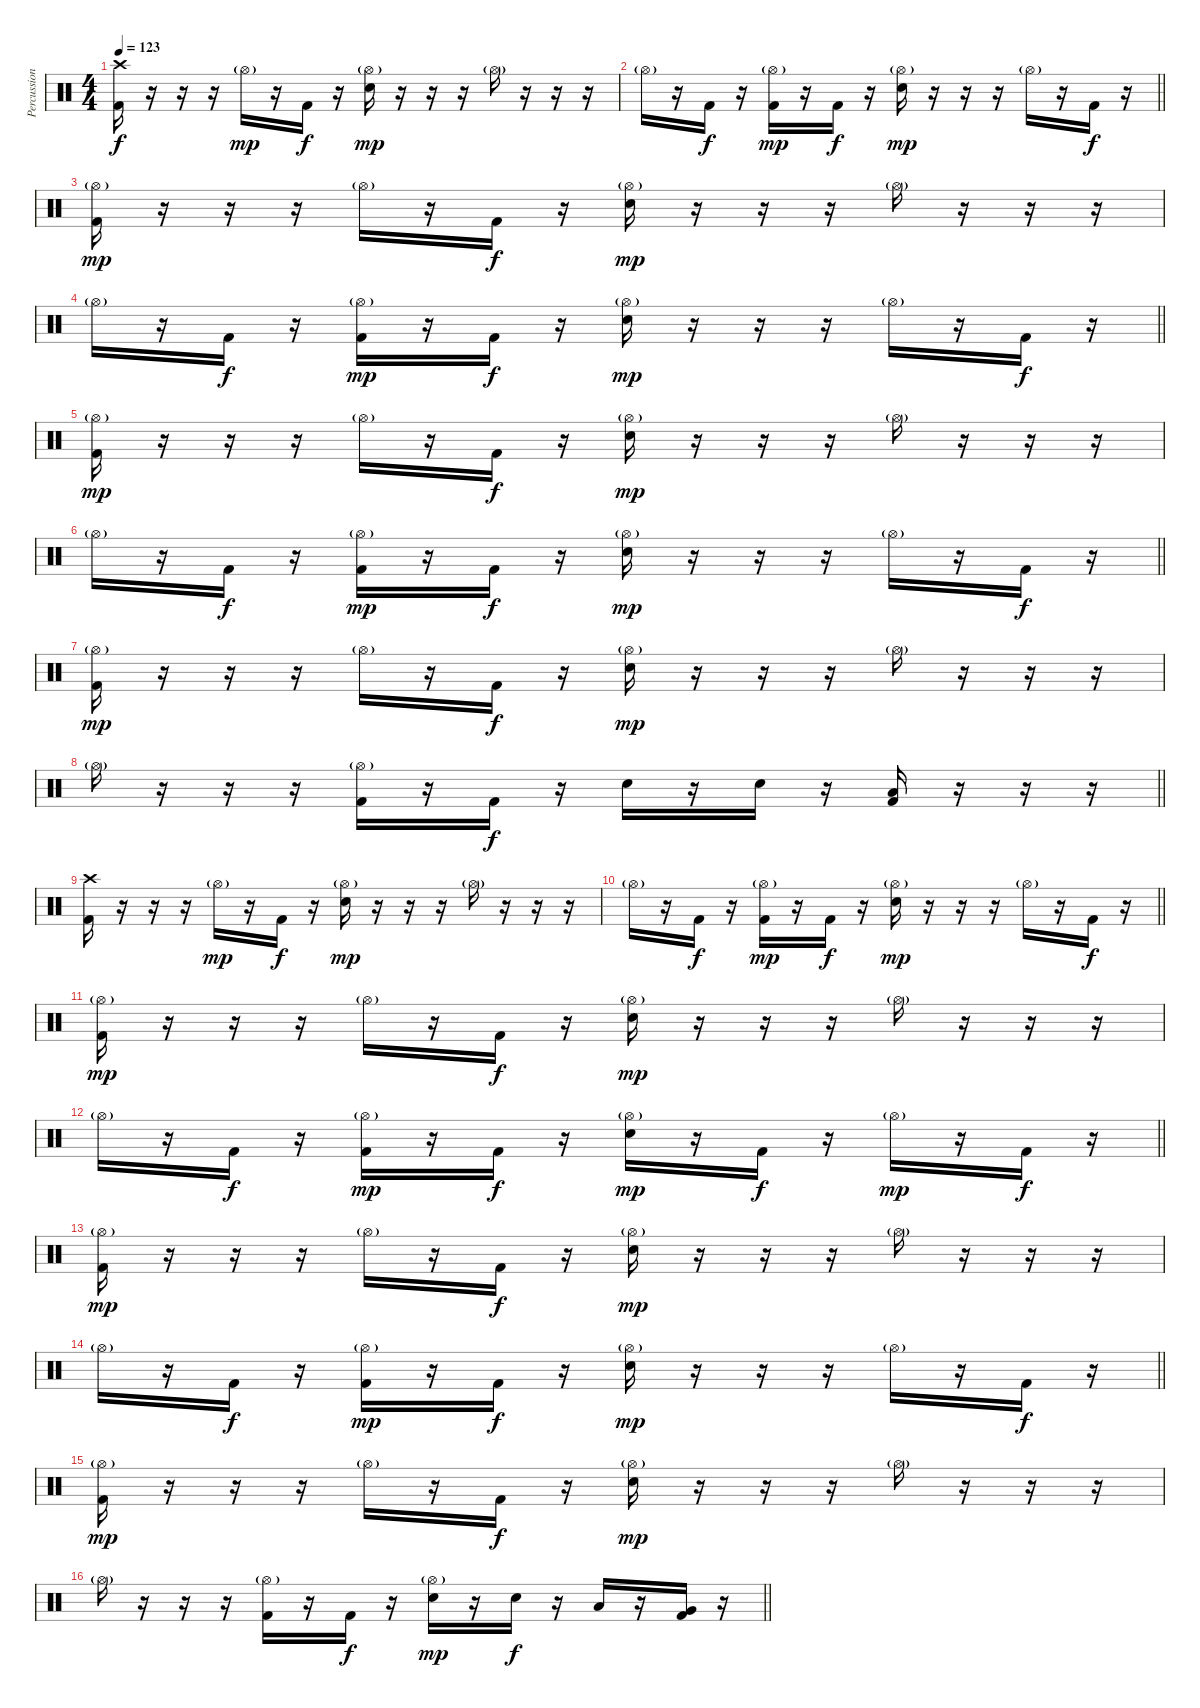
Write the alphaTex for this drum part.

\track ("Percussion" "Percussion") {instrument percussion}
\staff {score}
\articulation defaults
\ts (4 4)
\section ("" "")
\tempo 123
\clef neutral
\ks c
("Kick (hit) 2" "Crash high (hit)").16{dy f volume 12} r.16 r.16 r.16 "Hi-Hat (open)"{g}.16{dy mp} r.16 "Kick (hit) 2".16{dy f} r.16 ("Electric Snare (hit)" "Hi-Hat (open)"{g}).16{dy mp} r.16 r.16 r.16 "Hi-Hat (open)"{g}.16 r.16 r.16 r.16 |
\barLineRight lightlight "Hi-Hat (open)"{g}.16
r.16 "Kick (hit) 2".16{dy f} r.16 ("Kick (hit) 2" "Hi-Hat (open)"{g}).16{dy mp} r.16 "Kick (hit) 2".16{dy f} r.16 ("Electric Snare (hit)" "Hi-Hat (open)"{g}).16{dy mp} r.16 r.16 r.16 "Hi-Hat (open)"{g}.16 r.16 "Kick (hit) 2".16{dy f} r.16 |
("Kick (hit) 2" "Hi-Hat (open)"{g}).16{dy mp} r.16 r.16 r.16 "Hi-Hat (open)"{g}.16 r.16 "Kick (hit) 2".16{dy f} r.16 ("Electric Snare (hit)" "Hi-Hat (open)"{g}).16{dy mp} r.16 r.16 r.16 "Hi-Hat (open)"{g}.16 r.16 r.16 r.16 |
\barLineRight lightlight "Hi-Hat (open)"{g}.16
r.16 "Kick (hit) 2".16{dy f} r.16 ("Kick (hit) 2" "Hi-Hat (open)"{g}).16{dy mp} r.16 "Kick (hit) 2".16{dy f} r.16 ("Electric Snare (hit)" "Hi-Hat (open)"{g}).16{dy mp} r.16 r.16 r.16 "Hi-Hat (open)"{g}.16 r.16 "Kick (hit) 2".16{dy f} r.16 |
("Kick (hit) 2" "Hi-Hat (open)"{g}).16{dy mp} r.16 r.16 r.16 "Hi-Hat (open)"{g}.16 r.16 "Kick (hit) 2".16{dy f} r.16 ("Electric Snare (hit)" "Hi-Hat (open)"{g}).16{dy mp} r.16 r.16 r.16 "Hi-Hat (open)"{g}.16 r.16 r.16 r.16 |
\barLineRight lightlight "Hi-Hat (open)"{g}.16
r.16 "Kick (hit) 2".16{dy f} r.16 ("Kick (hit) 2" "Hi-Hat (open)"{g}).16{dy mp} r.16 "Kick (hit) 2".16{dy f} r.16 ("Electric Snare (hit)" "Hi-Hat (open)"{g}).16{dy mp} r.16 r.16 r.16 "Hi-Hat (open)"{g}.16 r.16 "Kick (hit) 2".16{dy f} r.16 |
("Kick (hit) 2" "Hi-Hat (open)"{g}).16{dy mp} r.16 r.16 r.16 "Hi-Hat (open)"{g}.16 r.16 "Kick (hit) 2".16{dy f} r.16 ("Electric Snare (hit)" "Hi-Hat (open)"{g}).16{dy mp} r.16 r.16 r.16 "Hi-Hat (open)"{g}.16 r.16 r.16 r.16 |
\barLineRight lightlight "Hi-Hat (open)"{g}.16
r.16 r.16 r.16 ("Kick (hit) 2" "Hi-Hat (open)"{g}).16 r.16 "Kick (hit) 2".16{dy f} r.16 "Electric Snare (hit)".16 r.16 "Electric Snare (hit)".16 r.16 ("Kick (hit) 2" "Low Tom (hit)").16 r.16 r.16 r.16 |
("Kick (hit) 2" "Crash high (hit)").16 r.16 r.16 r.16 "Hi-Hat (open)"{g}.16{dy mp} r.16 "Kick (hit) 2".16{dy f} r.16 ("Electric Snare (hit)" "Hi-Hat (open)"{g}).16{dy mp} r.16 r.16 r.16 "Hi-Hat (open)"{g}.16 r.16 r.16 r.16 |
\barLineRight lightlight "Hi-Hat (open)"{g}.16
r.16 "Kick (hit) 2".16{dy f} r.16 ("Kick (hit) 2" "Hi-Hat (open)"{g}).16{dy mp} r.16 "Kick (hit) 2".16{dy f} r.16 ("Electric Snare (hit)" "Hi-Hat (open)"{g}).16{dy mp} r.16 r.16 r.16 "Hi-Hat (open)"{g}.16 r.16 "Kick (hit) 2".16{dy f} r.16 |
("Kick (hit) 2" "Hi-Hat (open)"{g}).16{dy mp} r.16 r.16 r.16 "Hi-Hat (open)"{g}.16 r.16 "Kick (hit) 2".16{dy f} r.16 ("Electric Snare (hit)" "Hi-Hat (open)"{g}).16{dy mp} r.16 r.16 r.16 "Hi-Hat (open)"{g}.16 r.16 r.16 r.16 |
\barLineRight lightlight "Hi-Hat (open)"{g}.16
r.16 "Kick (hit) 2".16{dy f} r.16 ("Kick (hit) 2" "Hi-Hat (open)"{g}).16{dy mp} r.16 "Kick (hit) 2".16{dy f} r.16 ("Electric Snare (hit)" "Hi-Hat (open)"{g}).16{dy mp} r.16 "Kick (hit) 2".16{dy f} r.16 "Hi-Hat (open)"{g}.16{dy mp} r.16 "Kick (hit) 2".16{dy f} r.16 |
("Kick (hit) 2" "Hi-Hat (open)"{g}).16{dy mp} r.16 r.16 r.16 "Hi-Hat (open)"{g}.16 r.16 "Kick (hit) 2".16{dy f} r.16 ("Electric Snare (hit)" "Hi-Hat (open)"{g}).16{dy mp} r.16 r.16 r.16 "Hi-Hat (open)"{g}.16 r.16 r.16 r.16 |
\barLineRight lightlight "Hi-Hat (open)"{g}.16
r.16 "Kick (hit) 2".16{dy f} r.16 ("Kick (hit) 2" "Hi-Hat (open)"{g}).16{dy mp} r.16 "Kick (hit) 2".16{dy f} r.16 ("Electric Snare (hit)" "Hi-Hat (open)"{g}).16{dy mp} r.16 r.16 r.16 "Hi-Hat (open)"{g}.16 r.16 "Kick (hit) 2".16{dy f} r.16 |
("Kick (hit) 2" "Hi-Hat (open)"{g}).16{dy mp} r.16 r.16 r.16 "Hi-Hat (open)"{g}.16 r.16 "Kick (hit) 2".16{dy f} r.16 ("Electric Snare (hit)" "Hi-Hat (open)"{g}).16{dy mp} r.16 r.16 r.16 "Hi-Hat (open)"{g}.16 r.16 r.16 r.16 |
\barLineRight lightlight "Hi-Hat (open)"{g}.16
r.16 r.16 r.16 ("Kick (hit) 2" "Hi-Hat (open)"{g}).16 r.16 "Kick (hit) 2".16{dy f} r.16 ("Electric Snare (hit)" "Hi-Hat (open)"{g}).16{dy mp} r.16 "Electric Snare (hit)".16{dy f} r.16 "Low Tom (hit)".16 r.16 ("Kick (hit) 2" "Very Low Tom (hit)").16 r.16
